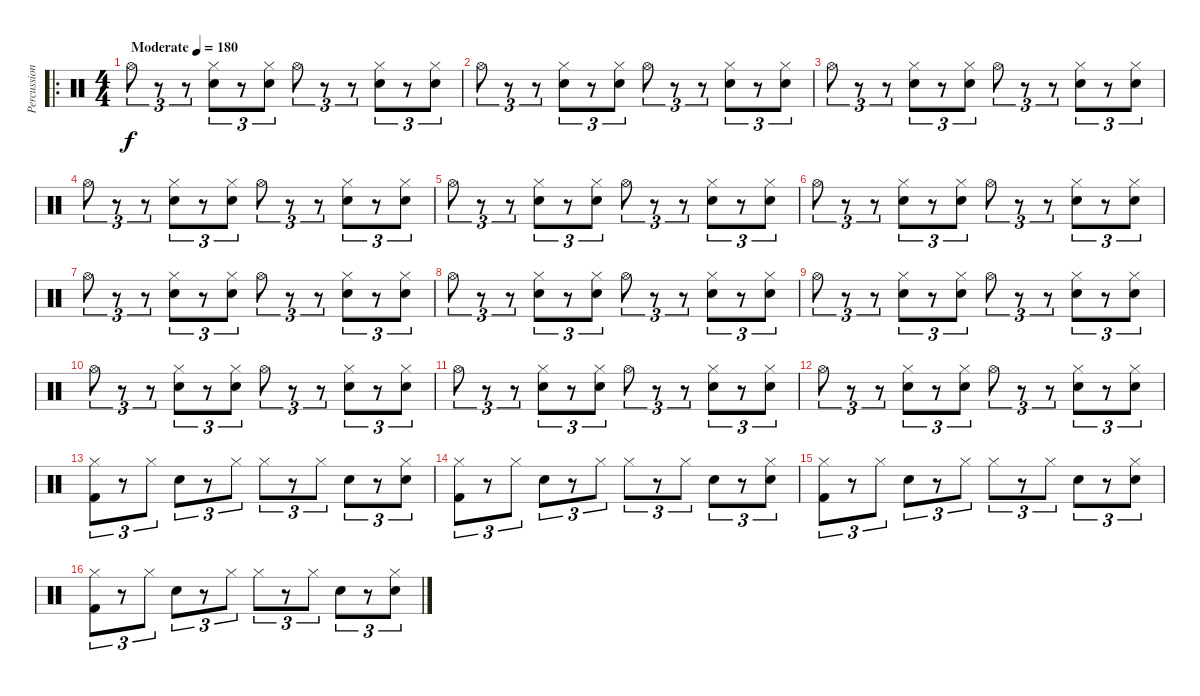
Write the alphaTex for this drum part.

\track ("Percussion" "Percussion") {instrument percussion}
\staff {score}
\articulation defaults
\ro
\ts (4 4)
\tempo (180 "Moderate")
\clef neutral
\ks c "Hi-Hat (open)".8{tu (3 2) dy f}
r.8{tu (3 2)} r.8{tu (3 2)} ("Hi-Hat (closed)" "Snare (hit) 2").8{tu (3 2)} r.8{tu (3 2)} ("Hi-Hat (closed)" "Snare (hit) 2").8{tu (3 2)} "Hi-Hat (open)".8{tu (3 2)} r.8{tu (3 2)} r.8{tu (3 2)} ("Hi-Hat (closed)" "Snare (hit) 2").8{tu (3 2)} r.8{tu (3 2)} ("Hi-Hat (closed)" "Snare (hit) 2").8{tu (3 2)} |
"Hi-Hat (open)".8{tu (3 2)} r.8{tu (3 2)} r.8{tu (3 2)} ("Hi-Hat (closed)" "Snare (hit) 2").8{tu (3 2)} r.8{tu (3 2)} ("Hi-Hat (closed)" "Snare (hit) 2").8{tu (3 2)} "Hi-Hat (open)".8{tu (3 2)} r.8{tu (3 2)} r.8{tu (3 2)} ("Hi-Hat (closed)" "Snare (hit) 2").8{tu (3 2)} r.8{tu (3 2)} ("Hi-Hat (closed)" "Snare (hit) 2").8{tu (3 2)} |
"Hi-Hat (open)".8{tu (3 2)} r.8{tu (3 2)} r.8{tu (3 2)} ("Hi-Hat (closed)" "Snare (hit) 2").8{tu (3 2)} r.8{tu (3 2)} ("Hi-Hat (closed)" "Snare (hit) 2").8{tu (3 2)} "Hi-Hat (open)".8{tu (3 2)} r.8{tu (3 2)} r.8{tu (3 2)} ("Hi-Hat (closed)" "Snare (hit) 2").8{tu (3 2)} r.8{tu (3 2)} ("Hi-Hat (closed)" "Snare (hit) 2").8{tu (3 2)} |
"Hi-Hat (open)".8{tu (3 2)} r.8{tu (3 2)} r.8{tu (3 2)} ("Hi-Hat (closed)" "Snare (hit) 2").8{tu (3 2)} r.8{tu (3 2)} ("Hi-Hat (closed)" "Snare (hit) 2").8{tu (3 2)} "Hi-Hat (open)".8{tu (3 2)} r.8{tu (3 2)} r.8{tu (3 2)} ("Hi-Hat (closed)" "Snare (hit) 2").8{tu (3 2)} r.8{tu (3 2)} ("Hi-Hat (closed)" "Snare (hit) 2").8{tu (3 2)} |
"Hi-Hat (open)".8{tu (3 2)} r.8{tu (3 2)} r.8{tu (3 2)} ("Hi-Hat (closed)" "Snare (hit) 2").8{tu (3 2)} r.8{tu (3 2)} ("Hi-Hat (closed)" "Snare (hit) 2").8{tu (3 2)} "Hi-Hat (open)".8{tu (3 2)} r.8{tu (3 2)} r.8{tu (3 2)} ("Hi-Hat (closed)" "Snare (hit) 2").8{tu (3 2)} r.8{tu (3 2)} ("Hi-Hat (closed)" "Snare (hit) 2").8{tu (3 2)} |
"Hi-Hat (open)".8{tu (3 2)} r.8{tu (3 2)} r.8{tu (3 2)} ("Hi-Hat (closed)" "Snare (hit) 2").8{tu (3 2)} r.8{tu (3 2)} ("Hi-Hat (closed)" "Snare (hit) 2").8{tu (3 2)} "Hi-Hat (open)".8{tu (3 2)} r.8{tu (3 2)} r.8{tu (3 2)} ("Hi-Hat (closed)" "Snare (hit) 2").8{tu (3 2)} r.8{tu (3 2)} ("Hi-Hat (closed)" "Snare (hit) 2").8{tu (3 2)} |
"Hi-Hat (open)".8{tu (3 2)} r.8{tu (3 2)} r.8{tu (3 2)} ("Hi-Hat (closed)" "Snare (hit) 2").8{tu (3 2)} r.8{tu (3 2)} ("Hi-Hat (closed)" "Snare (hit) 2").8{tu (3 2)} "Hi-Hat (open)".8{tu (3 2)} r.8{tu (3 2)} r.8{tu (3 2)} ("Hi-Hat (closed)" "Snare (hit) 2").8{tu (3 2)} r.8{tu (3 2)} ("Hi-Hat (closed)" "Snare (hit) 2").8{tu (3 2)} |
"Hi-Hat (open)".8{tu (3 2)} r.8{tu (3 2)} r.8{tu (3 2)} ("Hi-Hat (closed)" "Snare (hit) 2").8{tu (3 2)} r.8{tu (3 2)} ("Hi-Hat (closed)" "Snare (hit) 2").8{tu (3 2)} "Hi-Hat (open)".8{tu (3 2)} r.8{tu (3 2)} r.8{tu (3 2)} ("Hi-Hat (closed)" "Snare (hit) 2").8{tu (3 2)} r.8{tu (3 2)} ("Hi-Hat (closed)" "Snare (hit) 2").8{tu (3 2)} |
"Hi-Hat (open)".8{tu (3 2)} r.8{tu (3 2)} r.8{tu (3 2)} ("Hi-Hat (closed)" "Snare (hit) 2").8{tu (3 2)} r.8{tu (3 2)} ("Hi-Hat (closed)" "Snare (hit) 2").8{tu (3 2)} "Hi-Hat (open)".8{tu (3 2)} r.8{tu (3 2)} r.8{tu (3 2)} ("Hi-Hat (closed)" "Snare (hit) 2").8{tu (3 2)} r.8{tu (3 2)} ("Hi-Hat (closed)" "Snare (hit) 2").8{tu (3 2)} |
"Hi-Hat (open)".8{tu (3 2)} r.8{tu (3 2)} r.8{tu (3 2)} ("Hi-Hat (closed)" "Snare (hit) 2").8{tu (3 2)} r.8{tu (3 2)} ("Hi-Hat (closed)" "Snare (hit) 2").8{tu (3 2)} "Hi-Hat (open)".8{tu (3 2)} r.8{tu (3 2)} r.8{tu (3 2)} ("Hi-Hat (closed)" "Snare (hit) 2").8{tu (3 2)} r.8{tu (3 2)} ("Hi-Hat (closed)" "Snare (hit) 2").8{tu (3 2)} |
"Hi-Hat (open)".8{tu (3 2)} r.8{tu (3 2)} r.8{tu (3 2)} ("Hi-Hat (closed)" "Snare (hit) 2").8{tu (3 2)} r.8{tu (3 2)} ("Hi-Hat (closed)" "Snare (hit) 2").8{tu (3 2)} "Hi-Hat (open)".8{tu (3 2)} r.8{tu (3 2)} r.8{tu (3 2)} ("Hi-Hat (closed)" "Snare (hit) 2").8{tu (3 2)} r.8{tu (3 2)} ("Hi-Hat (closed)" "Snare (hit) 2").8{tu (3 2)} |
"Hi-Hat (open)".8{tu (3 2)} r.8{tu (3 2)} r.8{tu (3 2)} ("Hi-Hat (closed)" "Snare (hit) 2").8{tu (3 2)} r.8{tu (3 2)} ("Hi-Hat (closed)" "Snare (hit) 2").8{tu (3 2)} "Hi-Hat (open)".8{tu (3 2)} r.8{tu (3 2)} r.8{tu (3 2)} ("Hi-Hat (closed)" "Snare (hit) 2").8{tu (3 2)} r.8{tu (3 2)} ("Hi-Hat (closed)" "Snare (hit) 2").8{tu (3 2)} |
("Hi-Hat (closed)" "Kick (hit) 2").8{tu (3 2)} r.8{tu (3 2)} "Hi-Hat (closed)".8{tu (3 2)} "Snare (hit) 2".8{tu (3 2)} r.8{tu (3 2)} "Hi-Hat (closed)".8{tu (3 2)} "Hi-Hat (closed)".8{tu (3 2)} r.8{tu (3 2)} "Hi-Hat (closed)".8{tu (3 2)} "Snare (hit) 2".8{tu (3 2)} r.8{tu (3 2)} ("Hi-Hat (closed)" "Snare (hit) 2").8{tu (3 2)} |
("Hi-Hat (closed)" "Kick (hit) 2").8{tu (3 2)} r.8{tu (3 2)} "Hi-Hat (closed)".8{tu (3 2)} "Snare (hit) 2".8{tu (3 2)} r.8{tu (3 2)} "Hi-Hat (closed)".8{tu (3 2)} "Hi-Hat (closed)".8{tu (3 2)} r.8{tu (3 2)} "Hi-Hat (closed)".8{tu (3 2)} "Snare (hit) 2".8{tu (3 2)} r.8{tu (3 2)} ("Hi-Hat (closed)" "Snare (hit) 2").8{tu (3 2)} |
("Hi-Hat (closed)" "Kick (hit) 2").8{tu (3 2)} r.8{tu (3 2)} "Hi-Hat (closed)".8{tu (3 2)} "Snare (hit) 2".8{tu (3 2)} r.8{tu (3 2)} "Hi-Hat (closed)".8{tu (3 2)} "Hi-Hat (closed)".8{tu (3 2)} r.8{tu (3 2)} "Hi-Hat (closed)".8{tu (3 2)} "Snare (hit) 2".8{tu (3 2)} r.8{tu (3 2)} ("Hi-Hat (closed)" "Snare (hit) 2").8{tu (3 2)} |
("Hi-Hat (closed)" "Kick (hit) 2").8{tu (3 2)} r.8{tu (3 2)} "Hi-Hat (closed)".8{tu (3 2)} "Snare (hit) 2".8{tu (3 2)} r.8{tu (3 2)} "Hi-Hat (closed)".8{tu (3 2)} "Hi-Hat (closed)".8{tu (3 2)} r.8{tu (3 2)} "Hi-Hat (closed)".8{tu (3 2)} "Snare (hit) 2".8{tu (3 2)} r.8{tu (3 2)} ("Hi-Hat (closed)" "Snare (hit) 2").8{tu (3 2)}
